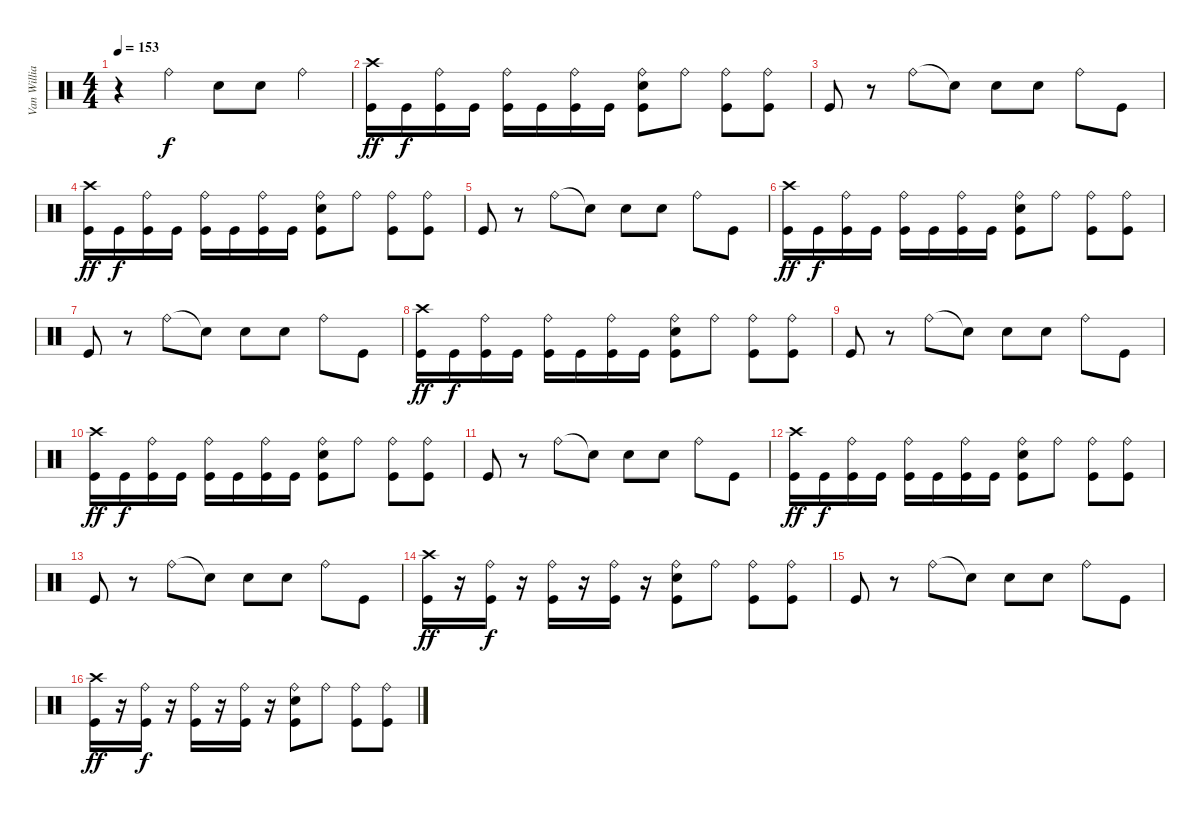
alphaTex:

\track ("Van Williams" "Van Willia") {instrument percussion}
\staff {score}
\articulation defaults
\ts (4 4)
\tempo 153
\clef neutral
\ks c
r.4{dy f} "Ride (bell)".4 "Electric Snare (hit)".8 "Electric Snare (hit)".8 "Ride (bell)".4 |
("Crash high (hit)" "Kick (hit)").16{dy ff} "Kick (hit)".16{dy f} ("Ride (bell)" "Kick (hit)").16 "Kick (hit)".16 ("Ride (bell)" "Kick (hit)").16 "Kick (hit)".16 ("Ride (bell)" "Kick (hit)").16 "Kick (hit)".16 ("Ride (bell)" "Electric Snare (hit)" "Kick (hit)").8 "Ride (bell)".8 ("Ride (bell)" "Kick (hit)").8 ("Ride (bell)" "Kick (hit)").8 |
"Kick (hit)".8 r.8 "Ride (bell)".8 "Snare (hit)"{t}.8 "Electric Snare (hit)".8 "Electric Snare (hit)".8 "Ride (bell)".8 "Kick (hit)".8 |
("Crash high (hit)" "Kick (hit)").16{dy ff} "Kick (hit)".16{dy f} ("Ride (bell)" "Kick (hit)").16 "Kick (hit)".16 ("Ride (bell)" "Kick (hit)").16 "Kick (hit)".16 ("Ride (bell)" "Kick (hit)").16 "Kick (hit)".16 ("Ride (bell)" "Electric Snare (hit)" "Kick (hit)").8 "Ride (bell)".8 ("Ride (bell)" "Kick (hit)").8 ("Ride (bell)" "Kick (hit)").8 |
"Kick (hit)".8 r.8 "Ride (bell)".8 "Snare (hit)"{t}.8 "Electric Snare (hit)".8 "Electric Snare (hit)".8 "Ride (bell)".8 "Kick (hit)".8 |
("Crash high (hit)" "Kick (hit)").16{dy ff} "Kick (hit)".16{dy f} ("Ride (bell)" "Kick (hit)").16 "Kick (hit)".16 ("Ride (bell)" "Kick (hit)").16 "Kick (hit)".16 ("Ride (bell)" "Kick (hit)").16 "Kick (hit)".16 ("Ride (bell)" "Electric Snare (hit)" "Kick (hit)").8 "Ride (bell)".8 ("Ride (bell)" "Kick (hit)").8 ("Ride (bell)" "Kick (hit)").8 |
"Kick (hit)".8 r.8 "Ride (bell)".8 "Snare (hit)"{t}.8 "Electric Snare (hit)".8 "Electric Snare (hit)".8 "Ride (bell)".8 "Kick (hit)".8 |
("Crash high (hit)" "Kick (hit)").16{dy ff} "Kick (hit)".16{dy f} ("Ride (bell)" "Kick (hit)").16 "Kick (hit)".16 ("Ride (bell)" "Kick (hit)").16 "Kick (hit)".16 ("Ride (bell)" "Kick (hit)").16 "Kick (hit)".16 ("Ride (bell)" "Electric Snare (hit)" "Kick (hit)").8 "Ride (bell)".8 ("Ride (bell)" "Kick (hit)").8 ("Ride (bell)" "Kick (hit)").8 |
"Kick (hit)".8 r.8 "Ride (bell)".8 "Snare (hit)"{t}.8 "Electric Snare (hit)".8 "Electric Snare (hit)".8 "Ride (bell)".8 "Kick (hit)".8 |
("Crash high (hit)" "Kick (hit)").16{dy ff} "Kick (hit)".16{dy f} ("Ride (bell)" "Kick (hit)").16 "Kick (hit)".16 ("Ride (bell)" "Kick (hit)").16 "Kick (hit)".16 ("Ride (bell)" "Kick (hit)").16 "Kick (hit)".16 ("Ride (bell)" "Electric Snare (hit)" "Kick (hit)").8 "Ride (bell)".8 ("Ride (bell)" "Kick (hit)").8 ("Ride (bell)" "Kick (hit)").8 |
"Kick (hit)".8 r.8 "Ride (bell)".8 "Snare (hit)"{t}.8 "Electric Snare (hit)".8 "Electric Snare (hit)".8 "Ride (bell)".8 "Kick (hit)".8 |
("Crash high (hit)" "Kick (hit)").16{dy ff} "Kick (hit)".16{dy f} ("Ride (bell)" "Kick (hit)").16 "Kick (hit)".16 ("Ride (bell)" "Kick (hit)").16 "Kick (hit)".16 ("Ride (bell)" "Kick (hit)").16 "Kick (hit)".16 ("Ride (bell)" "Electric Snare (hit)" "Kick (hit)").8 "Ride (bell)".8 ("Ride (bell)" "Kick (hit)").8 ("Ride (bell)" "Kick (hit)").8 |
"Kick (hit)".8 r.8 "Ride (bell)".8 "Snare (hit)"{t}.8 "Electric Snare (hit)".8 "Electric Snare (hit)".8 "Ride (bell)".8 "Kick (hit)".8 |
("Crash high (hit)" "Kick (hit)").16{dy ff} r.16 ("Ride (bell)" "Kick (hit)").16{dy f} r.16 ("Ride (bell)" "Kick (hit)").16 r.16 ("Ride (bell)" "Kick (hit)").16 r.16 ("Ride (bell)" "Electric Snare (hit)" "Kick (hit)").8 "Ride (bell)".8 ("Ride (bell)" "Kick (hit)").8 ("Ride (bell)" "Kick (hit)").8 |
"Kick (hit)".8 r.8 "Ride (bell)".8 "Snare (hit)"{t}.8 "Electric Snare (hit)".8 "Electric Snare (hit)".8 "Ride (bell)".8 "Kick (hit)".8 |
("Crash high (hit)" "Kick (hit)").16{dy ff} r.16 ("Ride (bell)" "Kick (hit)").16{dy f} r.16 ("Ride (bell)" "Kick (hit)").16 r.16 ("Ride (bell)" "Kick (hit)").16 r.16 ("Ride (bell)" "Electric Snare (hit)" "Kick (hit)").8 "Ride (bell)".8 ("Ride (bell)" "Kick (hit)").8 ("Ride (bell)" "Kick (hit)").8
